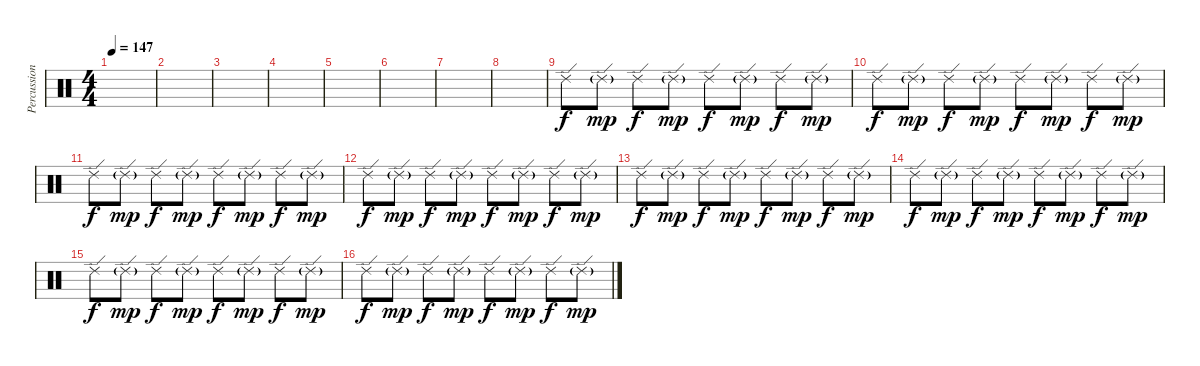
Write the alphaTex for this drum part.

\track ("Percussion" "Percussion") {instrument percussion}
\staff {score}
\articulation defaults
\ts (4 4)
\tempo 147
\clef neutral
\ks c
|
|
|
|
|
|
|
|
"Ride (edge) 2".8 "Ride (edge) 2"{g}.8{dy mp} "Ride (edge) 2".8{dy f} "Ride (edge) 2"{g}.8{dy mp} "Ride (edge) 2".8{dy f} "Ride (edge) 2"{g}.8{dy mp} "Ride (edge) 2".8{dy f} "Ride (edge) 2"{g}.8{dy mp} |
"Ride (edge) 2".8{dy f} "Ride (edge) 2"{g}.8{dy mp} "Ride (edge) 2".8{dy f} "Ride (edge) 2"{g}.8{dy mp} "Ride (edge) 2".8{dy f} "Ride (edge) 2"{g}.8{dy mp} "Ride (edge) 2".8{dy f} "Ride (edge) 2"{g}.8{dy mp} |
"Ride (edge) 2".8{dy f} "Ride (edge) 2"{g}.8{dy mp} "Ride (edge) 2".8{dy f} "Ride (edge) 2"{g}.8{dy mp} "Ride (edge) 2".8{dy f} "Ride (edge) 2"{g}.8{dy mp} "Ride (edge) 2".8{dy f} "Ride (edge) 2"{g}.8{dy mp} |
"Ride (edge) 2".8{dy f} "Ride (edge) 2"{g}.8{dy mp} "Ride (edge) 2".8{dy f} "Ride (edge) 2"{g}.8{dy mp} "Ride (edge) 2".8{dy f} "Ride (edge) 2"{g}.8{dy mp} "Ride (edge) 2".8{dy f} "Ride (edge) 2"{g}.8{dy mp} |
"Ride (edge) 2".8{dy f} "Ride (edge) 2"{g}.8{dy mp} "Ride (edge) 2".8{dy f} "Ride (edge) 2"{g}.8{dy mp} "Ride (edge) 2".8{dy f} "Ride (edge) 2"{g}.8{dy mp} "Ride (edge) 2".8{dy f} "Ride (edge) 2"{g}.8{dy mp} |
"Ride (edge) 2".8{dy f} "Ride (edge) 2"{g}.8{dy mp} "Ride (edge) 2".8{dy f} "Ride (edge) 2"{g}.8{dy mp} "Ride (edge) 2".8{dy f} "Ride (edge) 2"{g}.8{dy mp} "Ride (edge) 2".8{dy f} "Ride (edge) 2"{g}.8{dy mp} |
"Ride (edge) 2".8{dy f} "Ride (edge) 2"{g}.8{dy mp} "Ride (edge) 2".8{dy f} "Ride (edge) 2"{g}.8{dy mp} "Ride (edge) 2".8{dy f} "Ride (edge) 2"{g}.8{dy mp} "Ride (edge) 2".8{dy f} "Ride (edge) 2"{g}.8{dy mp} |
"Ride (edge) 2".8{dy f} "Ride (edge) 2"{g}.8{dy mp} "Ride (edge) 2".8{dy f} "Ride (edge) 2"{g}.8{dy mp} "Ride (edge) 2".8{dy f} "Ride (edge) 2"{g}.8{dy mp} "Ride (edge) 2".8{dy f} "Ride (edge) 2"{g}.8{dy mp}
